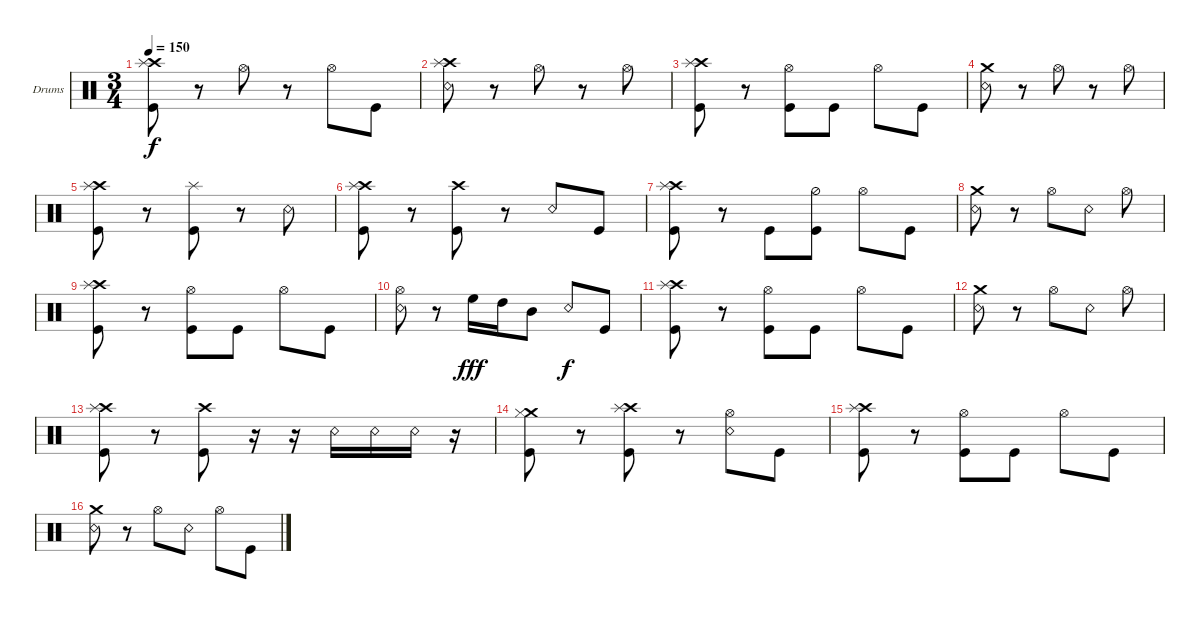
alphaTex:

\defaultSystemsLayout 4
\bracketExtendMode groupsimilarinstruments
\firstSystemTrackNameOrientation horizontal
\otherSystemsTrackNameOrientation horizontal
\track ("Scott" "Drums") {mute instrument percussion}
\staff {score}
\articulation defaults
\ts (3 4)
\tempo 150
\clef neutral
\scale
0.333333
\ks c
("Kick (hit)" "Crash high (hit)" "Splash (hit)").8{dy f} r.8 "Hi-Hat (open)".8 r.8 "Hi-Hat (open)".8 "Kick (hit)".8 |
\scale
0.333333 ("Snare (rim shot)" "Crash high (hit)" "Splash (hit)").8 r.8 "Hi-Hat (open)".8 r.8 "Hi-Hat (open)".8 |
\scale
0.333333 ("Kick (hit)" "Crash high (hit)" "Splash (hit)").8 r.8 ("Kick (hit)" "Hi-Hat (open)").8 "Kick (hit)".8 "Hi-Hat (open)".8 "Kick (hit)".8 |
\scale
0.333333 ("Crash medium (hit)" "Snare (rim shot)").8 r.8 "Hi-Hat (open)".8 r.8 "Hi-Hat (open)".8 |
\scale
0.333333 ("Kick (hit)" "Crash high (hit)" "Splash (hit)").8 r.8 ("Kick (hit)" "Splash (hit)").8 r.8 "Snare (rim shot)".8 |
\scale
0.333333 ("Kick (hit)" "Crash high (hit)" "Splash (hit)").8 r.8 ("Kick (hit)" "Crash high (hit)").8 r.8 "Snare (rim shot)".8 "Kick (hit)".8 |
\scale
0.333333 ("Kick (hit)" "Crash high (hit)" "Splash (hit)").8 r.8 "Kick (hit)".8 ("Hi-Hat (half)" "Kick (hit)").8 "Hi-Hat (open)".8 "Kick (hit)".8 |
\scale
0.333333 ("Crash medium (hit)" "Snare (rim shot)").8 r.8 "Hi-Hat (open)".8 "Snare (rim shot)".8 "Hi-Hat (open)".8 |
\scale
0.333333 ("Kick (hit)" "Crash high (hit)" "Splash (hit)").8 r.8 ("Kick (hit)" "Hi-Hat (open)").8 "Kick (hit)".8 "Hi-Hat (open)".8 "Kick (hit)".8 |
\scale
0.333333 ("Snare (rim shot)" "Hi-Hat (open)").8 r.8 "High Floor Tom (hit)".16{dy fff} "High Tom (hit)".16 "Mid Tom (hit)".8 "Snare (rim shot)".8{dy f} "Kick (hit)".8 |
\scale
0.333333 ("Kick (hit)" "Crash high (hit)" "Splash (hit)").8 r.8 ("Kick (hit)" "Hi-Hat (open)").8 "Kick (hit)".8 "Hi-Hat (open)".8 "Kick (hit)".8 |
\scale
0.333333 ("Crash medium (hit)" "Snare (rim shot)").8 r.8 "Hi-Hat (open)".8 "Snare (rim shot)".8 "Hi-Hat (open)".8 |
\scale
0.333333 ("Kick (hit)" "Crash high (hit)" "Splash (hit)").8 r.8 ("Kick (hit)" "Crash high (hit)").8 r.16 r.16 "Snare (rim shot)".16 "Snare (rim shot)".16 "Snare (rim shot)".16 r.16 |
\scale
0.333333 ("Kick (hit)" "Crash medium (hit)" "Hi-Hat (closed)").8 r.8 ("Crash high (hit)" "Splash (hit)" "Kick (hit)").8 r.8 ("Hi-Hat (open)" "Snare (rim shot)").8 "Kick (hit)".8 |
\scale
0.333333 ("Kick (hit)" "Crash high (hit)" "Splash (hit)").8 r.8 ("Kick (hit)" "Hi-Hat (open)").8 "Kick (hit)".8 "Hi-Hat (open)".8 "Kick (hit)".8 |
\scale
0.333333 ("Crash medium (hit)" "Snare (rim shot)").8 r.8 "Hi-Hat (open)".8 "Snare (rim shot)".8 "Hi-Hat (open)".8 "Kick (hit)".8
